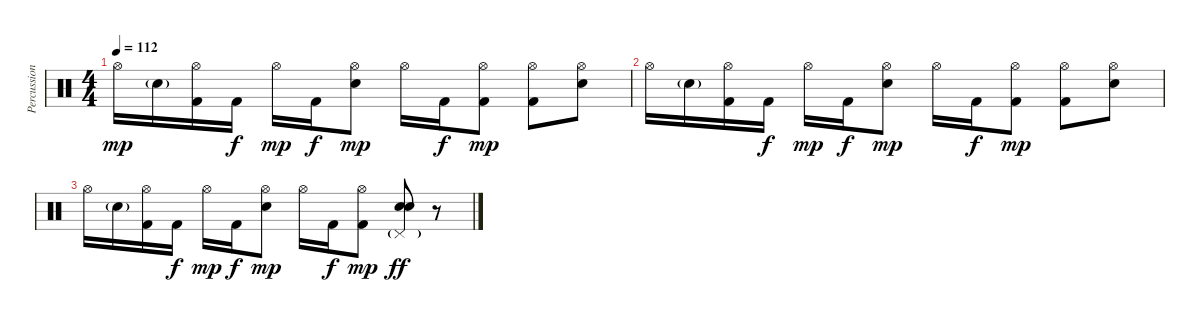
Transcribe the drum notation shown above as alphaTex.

\track ("Percussion" "Percussion") {instrument percussion}
\staff {score}
\articulation defaults
\ts (4 4)
\tempo 112
\clef neutral
\ks c "Hi-Hat (open)".16{dy mp} "Electric Snare (hit)"{g}.16
("Hi-Hat (open)" "Kick (hit) 2").16 "Kick (hit) 2".16{dy f} "Hi-Hat (open)".16{dy mp} "Kick (hit) 2".16{dy f} ("Hi-Hat (open)" "Electric Snare (hit)").8{dy mp} "Hi-Hat (open)".16 "Kick (hit) 2".16{dy f} ("Hi-Hat (open)" "Kick (hit) 2").8{dy mp} ("Hi-Hat (open)" "Kick (hit) 2").8 ("Hi-Hat (open)" "Electric Snare (hit)").8 |
"Hi-Hat (open)".16 "Electric Snare (hit)"{g}.16 ("Hi-Hat (open)" "Kick (hit) 2").16 "Kick (hit) 2".16{dy f} "Hi-Hat (open)".16{dy mp} "Kick (hit) 2".16{dy f} ("Hi-Hat (open)" "Electric Snare (hit)").8{dy mp} "Hi-Hat (open)".16 "Kick (hit) 2".16{dy f} ("Hi-Hat (open)" "Kick (hit) 2").8{dy mp} ("Hi-Hat (open)" "Kick (hit) 2").8 ("Hi-Hat (open)" "Electric Snare (hit)").8 |
"Hi-Hat (open)".16 "Electric Snare (hit)"{g}.16 ("Hi-Hat (open)" "Kick (hit) 2").16 "Kick (hit) 2".16{dy f} "Hi-Hat (open)".16{dy mp} "Kick (hit) 2".16{dy f} ("Hi-Hat (open)" "Electric Snare (hit)").8{dy mp} "Hi-Hat (open)".16 "Kick (hit) 2".16{dy f} ("Hi-Hat (open)" "Kick (hit) 2").8{dy mp} ("Pedal Hi-Hat (hit)"{g} "Electric Snare (hit)" "Electric Snare (hit)").8{dy ff} r.8{volume 0}
